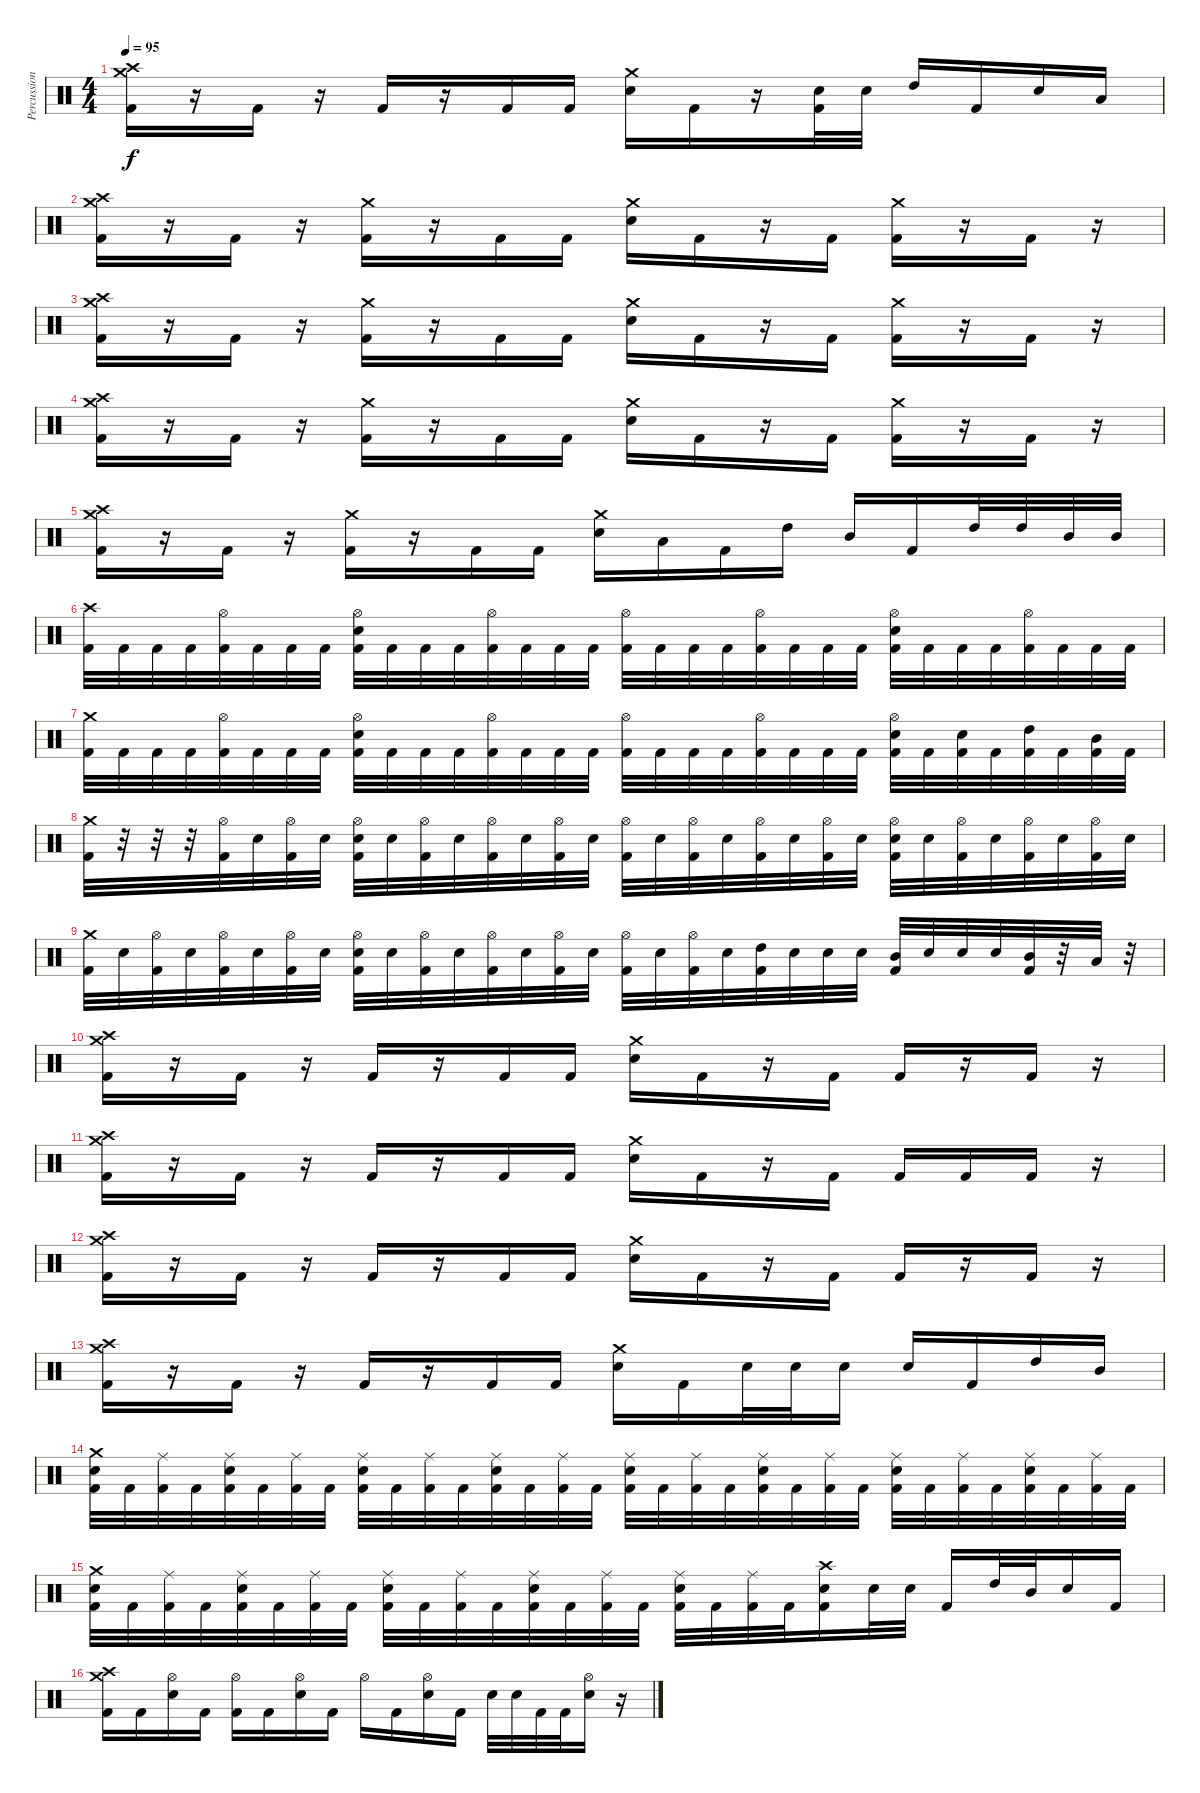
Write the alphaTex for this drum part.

\track ("Percussion" "Percussion") {instrument percussion}
\staff {score}
\articulation defaults
\ts (4 4)
\tempo 95
\clef neutral
\ks c
("Crash medium (hit)" "Crash high (hit)" "Kick (hit) 2").16{dy f} r.16 "Kick (hit) 2".16 r.16 "Kick (hit) 2".16 r.16 "Kick (hit) 2".16 "Kick (hit) 2".16 ("Crash medium (hit)" "Electric Snare (hit)").16 "Kick (hit) 2".16 r.16 ("Electric Snare (hit)" "Kick (hit) 2").32 "Electric Snare (hit)".32 "High Tom (hit)".16 "Kick (hit) 2".16 "Electric Snare (hit)".16 "Low Tom (hit)".16 |
("Crash medium (hit)" "Crash high (hit)" "Kick (hit) 2").16 r.16 "Kick (hit) 2".16 r.16 ("Crash medium (hit)" "Kick (hit) 2").16 r.16 "Kick (hit) 2".16 "Kick (hit) 2".16 ("Crash medium (hit)" "Electric Snare (hit)").16 "Kick (hit) 2".16 r.16 "Kick (hit) 2".16 ("Crash medium (hit)" "Kick (hit) 2").16 r.16 "Kick (hit) 2".16 r.16 |
("Crash medium (hit)" "Crash high (hit)" "Kick (hit) 2").16 r.16 "Kick (hit) 2".16 r.16 ("Crash medium (hit)" "Kick (hit) 2").16 r.16 "Kick (hit) 2".16 "Kick (hit) 2".16 ("Crash medium (hit)" "Electric Snare (hit)").16 "Kick (hit) 2".16 r.16 "Kick (hit) 2".16 ("Crash medium (hit)" "Kick (hit) 2").16 r.16 "Kick (hit) 2".16 r.16 |
("Crash medium (hit)" "Crash high (hit)" "Kick (hit) 2").16 r.16 "Kick (hit) 2".16 r.16 ("Crash medium (hit)" "Kick (hit) 2").16 r.16 "Kick (hit) 2".16 "Kick (hit) 2".16 ("Crash medium (hit)" "Electric Snare (hit)").16 "Kick (hit) 2".16 r.16 "Kick (hit) 2".16 ("Crash medium (hit)" "Kick (hit) 2").16 r.16 "Kick (hit) 2".16 r.16 |
("Crash medium (hit)" "Crash high (hit)" "Kick (hit) 2").16 r.16 "Kick (hit) 2".16 r.16 ("Crash medium (hit)" "Kick (hit) 2").16 r.16 "Kick (hit) 2".16 "Kick (hit) 2".16 ("Crash medium (hit)" "Electric Snare (hit)").16 "Low Tom (hit)".16 "Kick (hit) 2".16 "High Tom (hit)".16 "Mid Tom (hit)".16 "Kick (hit) 2".16 "High Tom (hit)".32 "High Tom (hit)".32 "Mid Tom (hit)".32 "Mid Tom (hit)".32 |
("Crash high (hit)" "Kick (hit) 2").32 "Kick (hit) 2".32 "Kick (hit) 2".32 "Kick (hit) 2".32 ("Hi-Hat (open)" "Kick (hit) 2").32 "Kick (hit) 2".32 "Kick (hit) 2".32 "Kick (hit) 2".32 ("Hi-Hat (open)" "Electric Snare (hit)" "Kick (hit) 2").32 "Kick (hit) 2".32 "Kick (hit) 2".32 "Kick (hit) 2".32 ("Hi-Hat (open)" "Kick (hit) 2").32 "Kick (hit) 2".32 "Kick (hit) 2".32 "Kick (hit) 2".32 ("Hi-Hat (open)" "Kick (hit) 2").32 "Kick (hit) 2".32 "Kick (hit) 2".32 "Kick (hit) 2".32 ("Hi-Hat (open)" "Kick (hit) 2").32 "Kick (hit) 2".32 "Kick (hit) 2".32 "Kick (hit) 2".32 ("Hi-Hat (open)" "Electric Snare (hit)" "Kick (hit) 2").32 "Kick (hit) 2".32 "Kick (hit) 2".32 "Kick (hit) 2".32 ("Hi-Hat (open)" "Kick (hit) 2").32 "Kick (hit) 2".32 "Kick (hit) 2".32 "Kick (hit) 2".32 |
("Crash medium (hit)" "Kick (hit) 2").32 "Kick (hit) 2".32 "Kick (hit) 2".32 "Kick (hit) 2".32 ("Hi-Hat (open)" "Kick (hit) 2").32 "Kick (hit) 2".32 "Kick (hit) 2".32 "Kick (hit) 2".32 ("Hi-Hat (open)" "Electric Snare (hit)" "Kick (hit) 2").32 "Kick (hit) 2".32 "Kick (hit) 2".32 "Kick (hit) 2".32 ("Hi-Hat (open)" "Kick (hit) 2").32 "Kick (hit) 2".32 "Kick (hit) 2".32 "Kick (hit) 2".32 ("Hi-Hat (open)" "Kick (hit) 2").32 "Kick (hit) 2".32 "Kick (hit) 2".32 "Kick (hit) 2".32 ("Hi-Hat (open)" "Kick (hit) 2").32 "Kick (hit) 2".32 "Kick (hit) 2".32 "Kick (hit) 2".32 ("Hi-Hat (open)" "Electric Snare (hit)" "Kick (hit) 2").32 "Kick (hit) 2".32 ("Electric Snare (hit)" "Kick (hit) 2").32 "Kick (hit) 2".32 ("High Tom (hit)" "Kick (hit) 2").32 "Kick (hit) 2".32 ("Mid Tom (hit)" "Kick (hit) 2").32 "Kick (hit) 2".32 |
("Crash medium (hit)" "Kick (hit) 2").32 r.32 r.32 r.32 ("Hi-Hat (open)" "Kick (hit) 2").32 "Electric Snare (hit)".32 ("Hi-Hat (open)" "Kick (hit) 2").32 "Electric Snare (hit)".32 ("Hi-Hat (open)" "Electric Snare (hit)" "Kick (hit) 2").32 "Electric Snare (hit)".32 ("Hi-Hat (open)" "Kick (hit) 2").32 "Electric Snare (hit)".32 ("Hi-Hat (open)" "Kick (hit) 2").32 "Electric Snare (hit)".32 ("Hi-Hat (open)" "Kick (hit) 2").32 "Electric Snare (hit)".32 ("Hi-Hat (open)" "Kick (hit) 2").32 "Electric Snare (hit)".32 ("Hi-Hat (open)" "Kick (hit) 2").32 "Electric Snare (hit)".32 ("Hi-Hat (open)" "Kick (hit) 2").32 "Electric Snare (hit)".32 ("Hi-Hat (open)" "Kick (hit) 2").32 "Electric Snare (hit)".32 ("Hi-Hat (open)" "Electric Snare (hit)" "Kick (hit) 2").32 "Electric Snare (hit)".32 ("Hi-Hat (open)" "Kick (hit) 2").32 "Electric Snare (hit)".32 ("Hi-Hat (open)" "Kick (hit) 2").32 "Electric Snare (hit)".32 ("Hi-Hat (open)" "Kick (hit) 2").32 "Electric Snare (hit)".32 |
("Crash medium (hit)" "Kick (hit) 2").32 "Electric Snare (hit)".32 ("Hi-Hat (open)" "Kick (hit) 2").32 "Electric Snare (hit)".32 ("Hi-Hat (open)" "Kick (hit) 2").32 "Electric Snare (hit)".32 ("Hi-Hat (open)" "Kick (hit) 2").32 "Electric Snare (hit)".32 ("Hi-Hat (open)" "Electric Snare (hit)" "Kick (hit) 2").32 "Electric Snare (hit)".32 ("Hi-Hat (open)" "Kick (hit) 2").32 "Electric Snare (hit)".32 ("Hi-Hat (open)" "Kick (hit) 2").32 "Electric Snare (hit)".32 ("Hi-Hat (open)" "Kick (hit) 2").32 "Electric Snare (hit)".32 ("Hi-Hat (open)" "Kick (hit) 2").32 "Electric Snare (hit)".32 ("Hi-Hat (open)" "Kick (hit) 2").32 "Electric Snare (hit)".32 ("High Tom (hit)" "Kick (hit) 2").32 "Electric Snare (hit)".32 "Electric Snare (hit)".32 "Electric Snare (hit)".32 ("Mid Tom (hit)" "Kick (hit) 2").32 "Electric Snare (hit)".32 "Electric Snare (hit)".32 "Electric Snare (hit)".32 ("Mid Tom (hit)" "Kick (hit) 2").32 r.32 "Low Tom (hit)".32 r.32 |
("Crash medium (hit)" "Crash high (hit)" "Kick (hit) 2").16 r.16 "Kick (hit) 2".16 r.16 "Kick (hit) 2".16 r.16 "Kick (hit) 2".16 "Kick (hit) 2".16 ("Crash medium (hit)" "Electric Snare (hit)").16 "Kick (hit) 2".16 r.16 "Kick (hit) 2".16 "Kick (hit) 2".16 r.16 "Kick (hit) 2".16 r.16 |
("Crash medium (hit)" "Crash high (hit)" "Kick (hit) 2").16 r.16 "Kick (hit) 2".16 r.16 "Kick (hit) 2".16 r.16 "Kick (hit) 2".16 "Kick (hit) 2".16 ("Crash medium (hit)" "Electric Snare (hit)").16 "Kick (hit) 2".16 r.16 "Kick (hit) 2".16 "Kick (hit) 2".16 "Kick (hit) 2".16 "Kick (hit) 2".16 r.16 |
("Crash medium (hit)" "Crash high (hit)" "Kick (hit) 2").16 r.16 "Kick (hit) 2".16 r.16 "Kick (hit) 2".16 r.16 "Kick (hit) 2".16 "Kick (hit) 2".16 ("Crash medium (hit)" "Electric Snare (hit)").16 "Kick (hit) 2".16 r.16 "Kick (hit) 2".16 "Kick (hit) 2".16 r.16 "Kick (hit) 2".16 r.16 |
("Crash medium (hit)" "Crash high (hit)" "Kick (hit) 2").16 r.16 "Kick (hit) 2".16 r.16 "Kick (hit) 2".16 r.16 "Kick (hit) 2".16 "Kick (hit) 2".16 ("Crash medium (hit)" "Electric Snare (hit)").16 "Kick (hit) 2".16 "Electric Snare (hit)".32 "Electric Snare (hit)".32 "Electric Snare (hit)".16 "Electric Snare (hit)".16 "Kick (hit) 2".16 "High Tom (hit)".16 "Mid Tom (hit)".16 |
("Crash medium (hit)" "Electric Snare (hit)" "Kick (hit) 2").32 "Kick (hit) 2".32 ("Ride (middle)" "Kick (hit) 2").32 "Kick (hit) 2".32 ("Ride (middle)" "Electric Snare (hit)" "Kick (hit) 2").32 "Kick (hit) 2".32 ("Ride (middle)" "Kick (hit) 2").32 "Kick (hit) 2".32 ("Ride (middle)" "Electric Snare (hit)" "Kick (hit) 2").32 "Kick (hit) 2".32 ("Ride (middle)" "Kick (hit) 2").32 "Kick (hit) 2".32 ("Ride (middle)" "Electric Snare (hit)" "Kick (hit) 2").32 "Kick (hit) 2".32 ("Ride (middle)" "Kick (hit) 2").32 "Kick (hit) 2".32 ("Ride (middle)" "Electric Snare (hit)" "Kick (hit) 2").32 "Kick (hit) 2".32 ("Ride (middle)" "Kick (hit) 2").32 "Kick (hit) 2".32 ("Ride (middle)" "Electric Snare (hit)" "Kick (hit) 2").32 "Kick (hit) 2".32 ("Ride (middle)" "Kick (hit) 2").32 "Kick (hit) 2".32 ("Ride (middle)" "Electric Snare (hit)" "Kick (hit) 2").32 "Kick (hit) 2".32 ("Ride (middle)" "Kick (hit) 2").32 "Kick (hit) 2".32 ("Ride (middle)" "Electric Snare (hit)" "Kick (hit) 2").32 "Kick (hit) 2".32 ("Ride (middle)" "Kick (hit) 2").32 "Kick (hit) 2".32 |
("Crash medium (hit)" "Electric Snare (hit)" "Kick (hit) 2").32 "Kick (hit) 2".32 ("Ride (middle)" "Kick (hit) 2").32 "Kick (hit) 2".32 ("Ride (middle)" "Electric Snare (hit)" "Kick (hit) 2").32 "Kick (hit) 2".32 ("Ride (middle)" "Kick (hit) 2").32 "Kick (hit) 2".32 ("Ride (middle)" "Electric Snare (hit)" "Kick (hit) 2").32 "Kick (hit) 2".32 ("Ride (middle)" "Kick (hit) 2").32 "Kick (hit) 2".32 ("Ride (middle)" "Electric Snare (hit)" "Kick (hit) 2").32 "Kick (hit) 2".32 ("Ride (middle)" "Kick (hit) 2").32 "Kick (hit) 2".32 ("Ride (middle)" "Electric Snare (hit)" "Kick (hit) 2").32 "Kick (hit) 2".32 ("Ride (middle)" "Kick (hit) 2").32 "Kick (hit) 2".32 ("Crash high (hit)" "Electric Snare (hit)" "Kick (hit) 2").16 "Electric Snare (hit)".32 "Electric Snare (hit)".32 "Kick (hit) 2".16 "High Tom (hit)".32 "Mid Tom (hit)".32 "Electric Snare (hit)".16 "Kick (hit) 2".16 |
("Crash medium (hit)" "Crash high (hit)" "Kick (hit) 2").16 "Kick (hit) 2".16 ("Hi-Hat (open)" "Electric Snare (hit)").16 "Kick (hit) 2".16 ("Hi-Hat (open)" "Kick (hit) 2").16 "Kick (hit) 2".16 ("Hi-Hat (open)" "Electric Snare (hit)").16 "Kick (hit) 2".16 "Hi-Hat (open)".16 "Kick (hit) 2".16 ("Hi-Hat (open)" "Electric Snare (hit)").16 "Kick (hit) 2".16 "Electric Snare (hit)".32 "Electric Snare (hit)".32 "Kick (hit) 2".32 "Kick (hit) 2".32 ("Hi-Hat (open)" "Electric Snare (hit)").16 r.16
